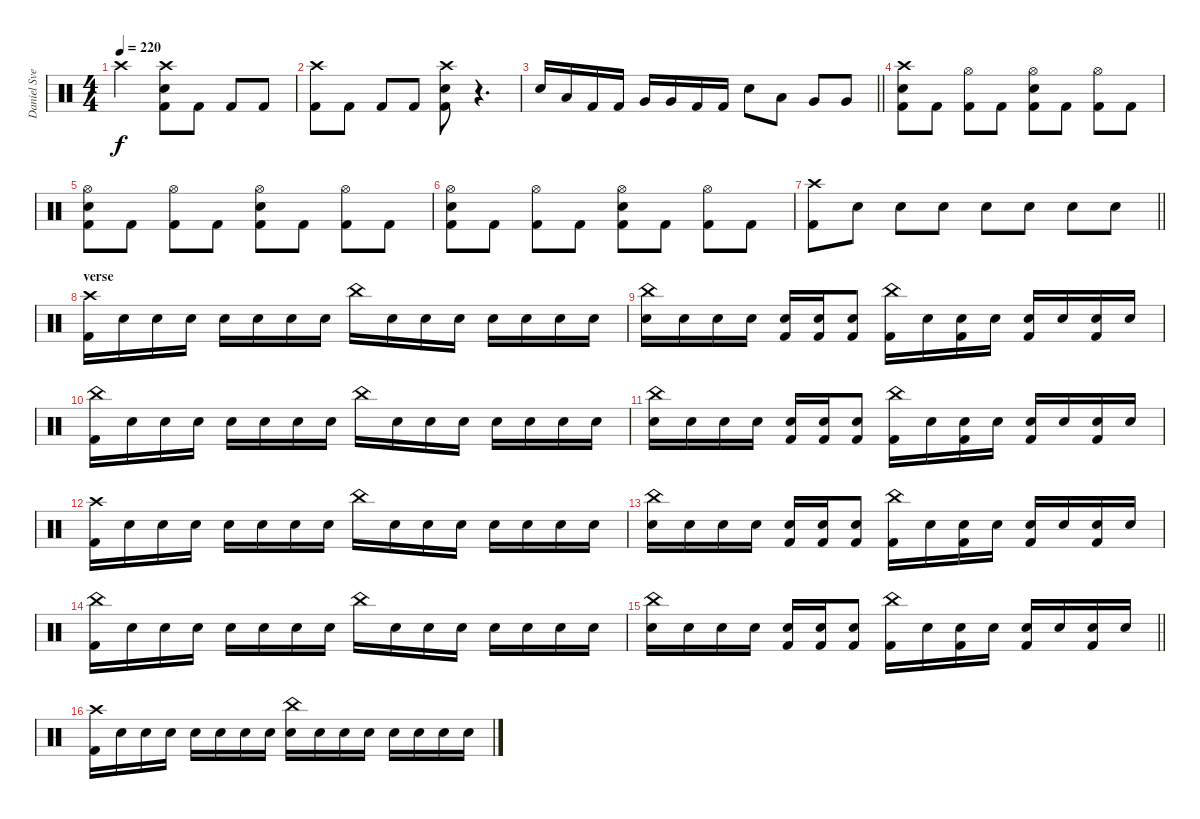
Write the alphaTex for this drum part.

\track ("Daniel Svensson" "Daniel Sve") {instrument percussion}
\staff {score}
\articulation defaults
\ts (4 4)
\tempo 220
\clef neutral
\ks c "Crash high (hit)".2{dy f}
("Crash high (hit)" "Electric Snare (hit)" "Kick (hit) 2").8 "Kick (hit) 2".8 "Kick (hit) 2".8 "Kick (hit) 2".8 |
("Crash high (hit)" "Kick (hit) 2").8 "Kick (hit) 2".8 "Kick (hit) 2".8 "Kick (hit) 2".8 ("Crash high (hit)" "Electric Snare (hit)" "Kick (hit) 2").8 r.4{d} |
\barLineRight lightlight "Electric Snare (hit)".16 "Low Tom (hit)".16 "Kick (hit) 2".16 "Kick (hit) 2".16 "Very Low Tom (hit)".16 "Very Low Tom (hit)".16 "Kick (hit) 2".16 "Kick (hit) 2".16 "Electric Snare (hit)".8 "Low Tom (hit)".8 "Very Low Tom (hit)".8 "Very Low Tom (hit)".8
|
\section ("" "")
("Crash high (hit)" "Electric Snare (hit)" "Kick (hit) 2").8 "Kick (hit) 2".8 ("Hi-Hat (open)" "Kick (hit) 2").8 "Kick (hit) 2".8 ("Hi-Hat (open)" "Electric Snare (hit)" "Kick (hit) 2").8 "Kick (hit) 2".8 ("Hi-Hat (open)" "Kick (hit) 2").8 "Kick (hit) 2".8 |
("Hi-Hat (open)" "Electric Snare (hit)" "Kick (hit) 2").8 "Kick (hit) 2".8 ("Hi-Hat (open)" "Kick (hit) 2").8 "Kick (hit) 2".8 ("Hi-Hat (open)" "Electric Snare (hit)" "Kick (hit) 2").8 "Kick (hit) 2".8 ("Hi-Hat (open)" "Kick (hit) 2").8 "Kick (hit) 2".8 |
("Hi-Hat (open)" "Electric Snare (hit)" "Kick (hit) 2").8 "Kick (hit) 2".8 ("Hi-Hat (open)" "Kick (hit) 2").8 "Kick (hit) 2".8 ("Hi-Hat (open)" "Electric Snare (hit)" "Kick (hit) 2").8 "Kick (hit) 2".8 ("Hi-Hat (open)" "Kick (hit) 2").8 "Kick (hit) 2".8 |
\barLineRight lightlight
("Crash high (hit)" "Kick (hit) 2").8 "Electric Snare (hit)".8 "Electric Snare (hit)".8 "Electric Snare (hit)".8 "Electric Snare (hit)".8 "Electric Snare (hit)".8 "Electric Snare (hit)".8 "Electric Snare (hit)".8 |
\section ("" "verse")
("Crash high (hit)" "Kick (hit) 2").16 "Snare (hit)".16 "Snare (hit)".16 "Snare (hit)".16 "Snare (hit)".16 "Snare (hit)".16 "Snare (hit)".16 "Snare (hit)".16 "China (hit)".16 "Snare (hit)".16 "Snare (hit)".16 "Snare (hit)".16 "Snare (hit)".16 "Snare (hit)".16 "Snare (hit)".16 "Snare (hit)".16 |
("China (hit)" "Electric Snare (hit)").16 "Snare (hit)".16 "Snare (hit)".16 "Snare (hit)".16 ("Snare (hit)" "Kick (hit) 2").16 ("Snare (hit)" "Kick (hit) 2").16 ("Snare (hit)" "Kick (hit) 2").8 ("China (hit)" "Kick (hit) 2").16 "Snare (hit)".16 ("Snare (hit)" "Kick (hit) 2").16 "Snare (hit)".16 ("Snare (hit)" "Kick (hit) 2").16 "Snare (hit)".16 ("Snare (hit)" "Kick (hit) 2").16 "Snare (hit)".16 |
("China (hit)" "Kick (hit) 2").16 "Snare (hit)".16 "Snare (hit)".16 "Snare (hit)".16 "Snare (hit)".16 "Snare (hit)".16 "Snare (hit)".16 "Snare (hit)".16 "China (hit)".16 "Snare (hit)".16 "Snare (hit)".16 "Snare (hit)".16 "Snare (hit)".16 "Snare (hit)".16 "Snare (hit)".16 "Snare (hit)".16 |
("China (hit)" "Electric Snare (hit)").16 "Snare (hit)".16 "Snare (hit)".16 "Snare (hit)".16 ("Snare (hit)" "Kick (hit) 2").16 ("Snare (hit)" "Kick (hit) 2").16 ("Snare (hit)" "Kick (hit) 2").8 ("China (hit)" "Kick (hit) 2").16 "Snare (hit)".16 ("Snare (hit)" "Kick (hit) 2").16 "Snare (hit)".16 ("Snare (hit)" "Kick (hit) 2").16 "Snare (hit)".16 ("Snare (hit)" "Kick (hit) 2").16 "Snare (hit)".16 |
("Crash high (hit)" "Kick (hit) 2").16 "Snare (hit)".16 "Snare (hit)".16 "Snare (hit)".16 "Snare (hit)".16 "Snare (hit)".16 "Snare (hit)".16 "Snare (hit)".16 "China (hit)".16 "Snare (hit)".16 "Snare (hit)".16 "Snare (hit)".16 "Snare (hit)".16 "Snare (hit)".16 "Snare (hit)".16 "Snare (hit)".16 |
("China (hit)" "Electric Snare (hit)").16 "Snare (hit)".16 "Snare (hit)".16 "Snare (hit)".16 ("Snare (hit)" "Kick (hit) 2").16 ("Snare (hit)" "Kick (hit) 2").16 ("Snare (hit)" "Kick (hit) 2").8 ("China (hit)" "Kick (hit) 2").16 "Snare (hit)".16 ("Snare (hit)" "Kick (hit) 2").16 "Snare (hit)".16 ("Snare (hit)" "Kick (hit) 2").16 "Snare (hit)".16 ("Snare (hit)" "Kick (hit) 2").16 "Snare (hit)".16 |
("China (hit)" "Kick (hit) 2").16 "Snare (hit)".16 "Snare (hit)".16 "Snare (hit)".16 "Snare (hit)".16 "Snare (hit)".16 "Snare (hit)".16 "Snare (hit)".16 "China (hit)".16 "Snare (hit)".16 "Snare (hit)".16 "Snare (hit)".16 "Snare (hit)".16 "Snare (hit)".16 "Snare (hit)".16 "Snare (hit)".16 |
\barLineRight lightlight
("China (hit)" "Electric Snare (hit)").16 "Snare (hit)".16 "Snare (hit)".16 "Snare (hit)".16 ("Snare (hit)" "Kick (hit) 2").16 ("Snare (hit)" "Kick (hit) 2").16 ("Snare (hit)" "Kick (hit) 2").8 ("China (hit)" "Kick (hit) 2").16 "Snare (hit)".16 ("Snare (hit)" "Kick (hit) 2").16 "Snare (hit)".16 ("Snare (hit)" "Kick (hit) 2").16 "Snare (hit)".16 ("Snare (hit)" "Kick (hit) 2").16 "Snare (hit)".16 |
\section ("" "")
("Crash high (hit)" "Kick (hit) 2").16 "Snare (hit)".16 "Snare (hit)".16 "Snare (hit)".16 "Snare (hit)".16 "Snare (hit)".16 "Snare (hit)".16 "Snare (hit)".16 ("China (hit)" "Electric Snare (hit)").16 "Snare (hit)".16 "Snare (hit)".16 "Snare (hit)".16 "Snare (hit)".16 "Snare (hit)".16 "Snare (hit)".16 "Snare (hit)".16
